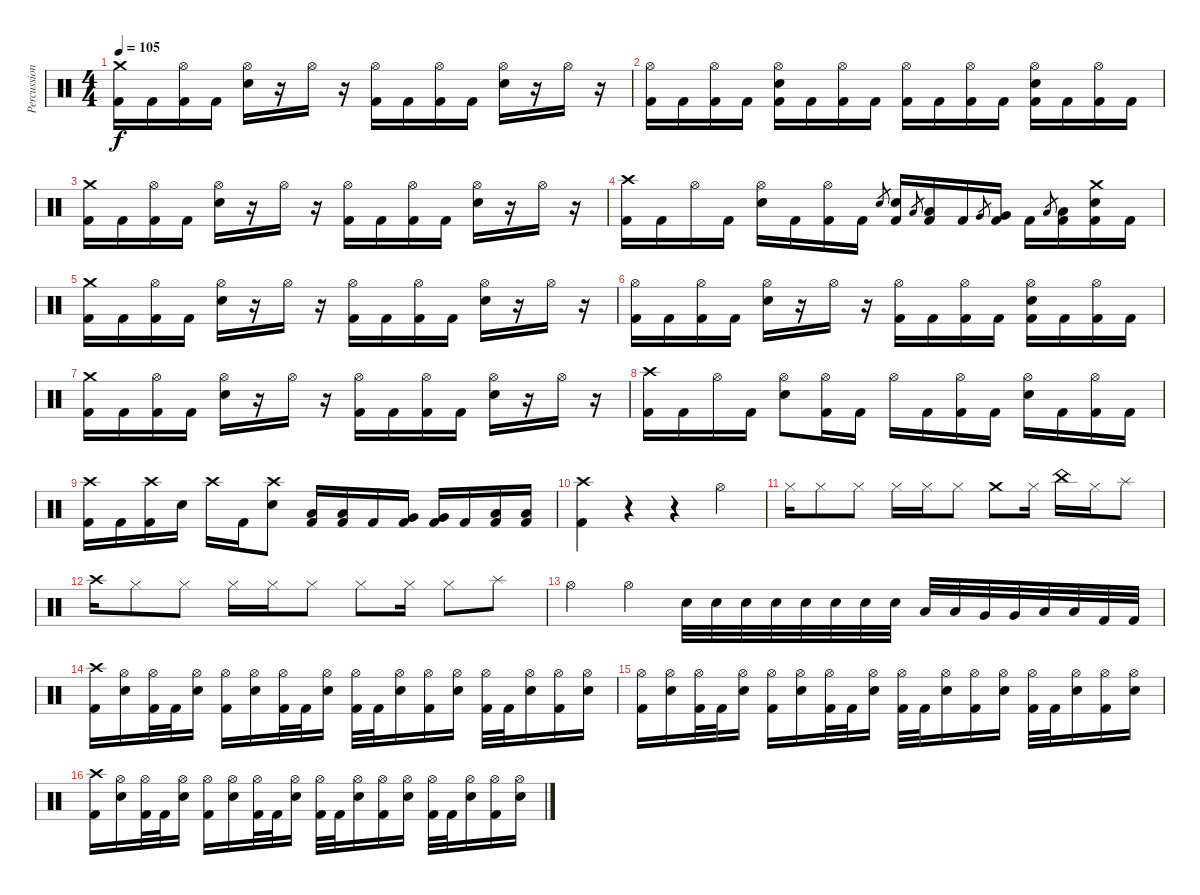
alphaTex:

\track ("Percussions" "Percussion") {instrument percussion}
\staff {score}
\articulation defaults
\ts (4 4)
\tempo 105
\clef neutral
\ks c
("Crash medium (hit)" "Kick (hit) 2").16{dy f} "Kick (hit) 2".16 ("Hi-Hat (open)" "Kick (hit) 2").16 "Kick (hit) 2".16 ("Hi-Hat (open)" "Electric Snare (hit)").16 r.16 "Hi-Hat (open)".16 r.16 ("Hi-Hat (open)" "Kick (hit) 2").16 "Kick (hit) 2".16 ("Hi-Hat (open)" "Kick (hit) 2").16 "Kick (hit) 2".16 ("Hi-Hat (open)" "Electric Snare (hit)").16 r.16 "Hi-Hat (open)".16 r.16 |
("Hi-Hat (open)" "Kick (hit) 2").16 "Kick (hit) 2".16 ("Hi-Hat (open)" "Kick (hit) 2").16 "Kick (hit) 2".16 ("Hi-Hat (open)" "Electric Snare (hit)" "Kick (hit) 2").16 "Kick (hit) 2".16 ("Hi-Hat (open)" "Kick (hit) 2").16 "Kick (hit) 2".16 ("Hi-Hat (open)" "Kick (hit) 2").16 "Kick (hit) 2".16 ("Hi-Hat (open)" "Kick (hit) 2").16 "Kick (hit) 2".16 ("Hi-Hat (open)" "Electric Snare (hit)" "Kick (hit) 2").16 "Kick (hit) 2".16 ("Hi-Hat (open)" "Kick (hit) 2").16 "Kick (hit) 2".16 |
("Crash medium (hit)" "Kick (hit) 2").16 "Kick (hit) 2".16 ("Hi-Hat (open)" "Kick (hit) 2").16 "Kick (hit) 2".16 ("Hi-Hat (open)" "Electric Snare (hit)").16 r.16 "Hi-Hat (open)".16 r.16 ("Hi-Hat (open)" "Kick (hit) 2").16 "Kick (hit) 2".16 ("Hi-Hat (open)" "Kick (hit) 2").16 "Kick (hit) 2".16 ("Hi-Hat (open)" "Electric Snare (hit)").16 r.16 "Hi-Hat (open)".16 r.16 |
("Crash high (hit)" "Kick (hit) 2").16 "Kick (hit) 2".16 "Hi-Hat (open)".16 "Kick (hit) 2".16 ("Hi-Hat (open)" "Electric Snare (hit)").16 "Kick (hit) 2".16 ("Hi-Hat (open)" "Kick (hit) 2").16 "Kick (hit) 2".16 "Electric Snare (hit)".8{gr} ("Electric Snare (hit)" "Kick (hit) 2").16 "Low Tom (hit)".8{gr} ("Low Tom (hit)" "Kick (hit) 2").16 "Kick (hit) 2".16 "Very Low Tom (hit)".8{gr} ("Very Low Tom (hit)" "Kick (hit) 2").16 "Kick (hit) 2".16 "Low Floor Tom (hit)".8{gr} ("Low Floor Tom (hit)" "Kick (hit) 2").16 ("Crash medium (hit)" "Electric Snare (hit)" "Kick (hit) 2").16 "Kick (hit) 2".16 |
("Crash medium (hit)" "Kick (hit) 2").16 "Kick (hit) 2".16 ("Hi-Hat (open)" "Kick (hit) 2").16 "Kick (hit) 2".16 ("Hi-Hat (open)" "Electric Snare (hit)").16 r.16 "Hi-Hat (open)".16 r.16 ("Hi-Hat (open)" "Kick (hit) 2").16 "Kick (hit) 2".16 ("Hi-Hat (open)" "Kick (hit) 2").16 "Kick (hit) 2".16 ("Hi-Hat (open)" "Electric Snare (hit)").16 r.16 "Hi-Hat (open)".16 r.16 |
("Hi-Hat (open)" "Kick (hit) 2").16 "Kick (hit) 2".16 ("Hi-Hat (open)" "Kick (hit) 2").16 "Kick (hit) 2".16 ("Hi-Hat (open)" "Electric Snare (hit)").16 r.16 "Hi-Hat (open)".16 r.16 ("Hi-Hat (open)" "Kick (hit) 2").16 "Kick (hit) 2".16 ("Hi-Hat (open)" "Kick (hit) 2").16 "Kick (hit) 2".16 ("Hi-Hat (open)" "Electric Snare (hit)" "Kick (hit) 2").16 "Kick (hit) 2".16 ("Hi-Hat (open)" "Kick (hit) 2").16 "Kick (hit) 2".16 |
("Crash medium (hit)" "Kick (hit) 2").16 "Kick (hit) 2".16 ("Hi-Hat (open)" "Kick (hit) 2").16 "Kick (hit) 2".16 ("Hi-Hat (open)" "Electric Snare (hit)").16 r.16 "Hi-Hat (open)".16 r.16 ("Hi-Hat (open)" "Kick (hit) 2").16 "Kick (hit) 2".16 ("Hi-Hat (open)" "Kick (hit) 2").16 "Kick (hit) 2".16 ("Hi-Hat (open)" "Electric Snare (hit)").16 r.16 "Hi-Hat (open)".16 r.16 |
("Crash high (hit)" "Kick (hit) 2").16 "Kick (hit) 2".16 "Hi-Hat (open)".16 "Kick (hit) 2".16 ("Hi-Hat (open)" "Electric Snare (hit)").8 ("Hi-Hat (open)" "Kick (hit) 2").16 "Kick (hit) 2".16 "Hi-Hat (open)".16 "Kick (hit) 2".16 ("Hi-Hat (open)" "Kick (hit) 2").16 "Kick (hit) 2".16 ("Hi-Hat (open)" "Electric Snare (hit)").16 "Kick (hit) 2".16 ("Hi-Hat (open)" "Kick (hit) 2").16 "Kick (hit) 2".16 |
("Crash high (hit)" "Kick (hit) 2").16 "Kick (hit) 2".16 ("Crash high (hit)" "Kick (hit) 2").16 "Electric Snare (hit)".16 "Crash high (hit)".16 "Kick (hit) 2".16 ("Crash high (hit)" "Electric Snare (hit)").8 ("Low Tom (hit)" "Kick (hit) 2").16 ("Low Tom (hit)" "Kick (hit) 2").16 "Kick (hit) 2".16 ("Very Low Tom (hit)" "Kick (hit) 2").16 ("Very Low Tom (hit)" "Kick (hit) 2").16 "Kick (hit) 2".16 ("Low Floor Tom (hit)" "Kick (hit) 2").16 ("Low Floor Tom (hit)" "Kick (hit) 2").16 |
("Crash high (hit)" "Kick (hit) 2").4 r.4 r.4 "Hi-Hat (open)".4 |
"Hi-Hat (closed)".16 "Hi-Hat (closed)".8 "Hi-Hat (closed)".8 "Hi-Hat (closed)".16 "Hi-Hat (closed)".16 "Hi-Hat (closed)".8 "Crash medium (hit)".8 "Hi-Hat (closed)".16 "China (hit)".16 "Hi-Hat (closed)".16 "Splash (hit)".8 |
"Crash high (hit)".16 "Hi-Hat (closed)".8 "Hi-Hat (closed)".8 "Hi-Hat (closed)".16 "Hi-Hat (closed)".16 "Hi-Hat (closed)".8 "Hi-Hat (closed)".8 "Hi-Hat (closed)".16 "Hi-Hat (closed)".8 "Splash (hit)".8 |
"Hi-Hat (open)".4 "Hi-Hat (open)".4 "Electric Snare (hit)".32 "Electric Snare (hit)".32 "Electric Snare (hit)".32 "Electric Snare (hit)".32 "Electric Snare (hit)".32 "Electric Snare (hit)".32 "Electric Snare (hit)".32 "Electric Snare (hit)".32 "Low Tom (hit)".32 "Low Tom (hit)".32 "Very Low Tom (hit)".32 "Very Low Tom (hit)".32 "Low Floor Tom (hit)".32 "Low Floor Tom (hit)".32 "Kick (hit) 2".32 "Kick (hit) 2".32 |
("Crash high (hit)" "Kick (hit) 2").16 ("Hi-Hat (open)" "Electric Snare (hit)").16 ("Hi-Hat (open)" "Kick (hit) 2").32 "Kick (hit) 2".32 ("Hi-Hat (open)" "Electric Snare (hit)").16 ("Hi-Hat (open)" "Kick (hit) 2").16 ("Hi-Hat (open)" "Electric Snare (hit)").16 ("Hi-Hat (open)" "Kick (hit) 2").32 "Kick (hit) 2".32 ("Hi-Hat (open)" "Electric Snare (hit)").16 ("Hi-Hat (open)" "Kick (hit) 2").32 "Kick (hit) 2".32 ("Hi-Hat (open)" "Electric Snare (hit)").16 ("Hi-Hat (open)" "Kick (hit) 2").16 ("Hi-Hat (open)" "Electric Snare (hit)").16 ("Hi-Hat (open)" "Kick (hit) 2").32 "Kick (hit) 2".32 ("Hi-Hat (open)" "Electric Snare (hit)").16 ("Hi-Hat (open)" "Kick (hit) 2").16 ("Hi-Hat (open)" "Electric Snare (hit)").16 |
("Hi-Hat (open)" "Kick (hit) 2").16 ("Hi-Hat (open)" "Electric Snare (hit)").16 ("Hi-Hat (open)" "Kick (hit) 2").32 "Kick (hit) 2".32 ("Hi-Hat (open)" "Electric Snare (hit)").16 ("Hi-Hat (open)" "Kick (hit) 2").16 ("Hi-Hat (open)" "Electric Snare (hit)").16 ("Hi-Hat (open)" "Kick (hit) 2").32 "Kick (hit) 2".32 ("Hi-Hat (open)" "Electric Snare (hit)").16 ("Hi-Hat (open)" "Kick (hit) 2").32 "Kick (hit) 2".32 ("Hi-Hat (open)" "Electric Snare (hit)").16 ("Hi-Hat (open)" "Kick (hit) 2").16 ("Hi-Hat (open)" "Electric Snare (hit)").16 ("Hi-Hat (open)" "Kick (hit) 2").32 "Kick (hit) 2".32 ("Hi-Hat (open)" "Electric Snare (hit)").16 ("Hi-Hat (open)" "Kick (hit) 2").16 ("Hi-Hat (open)" "Electric Snare (hit)").16 |
("Crash high (hit)" "Kick (hit) 2").16 ("Hi-Hat (open)" "Electric Snare (hit)").16 ("Hi-Hat (open)" "Kick (hit) 2").32 "Kick (hit) 2".32 ("Hi-Hat (open)" "Electric Snare (hit)").16 ("Hi-Hat (open)" "Kick (hit) 2").16 ("Hi-Hat (open)" "Electric Snare (hit)").16 ("Hi-Hat (open)" "Kick (hit) 2").32 "Kick (hit) 2".32 ("Hi-Hat (open)" "Electric Snare (hit)").16 ("Hi-Hat (open)" "Kick (hit) 2").32 "Kick (hit) 2".32 ("Hi-Hat (open)" "Electric Snare (hit)").16 ("Hi-Hat (open)" "Kick (hit) 2").16 ("Hi-Hat (open)" "Electric Snare (hit)").16 ("Hi-Hat (open)" "Kick (hit) 2").32 "Kick (hit) 2".32 ("Hi-Hat (open)" "Electric Snare (hit)").16 ("Hi-Hat (open)" "Kick (hit) 2").16 ("Hi-Hat (open)" "Electric Snare (hit)").16
